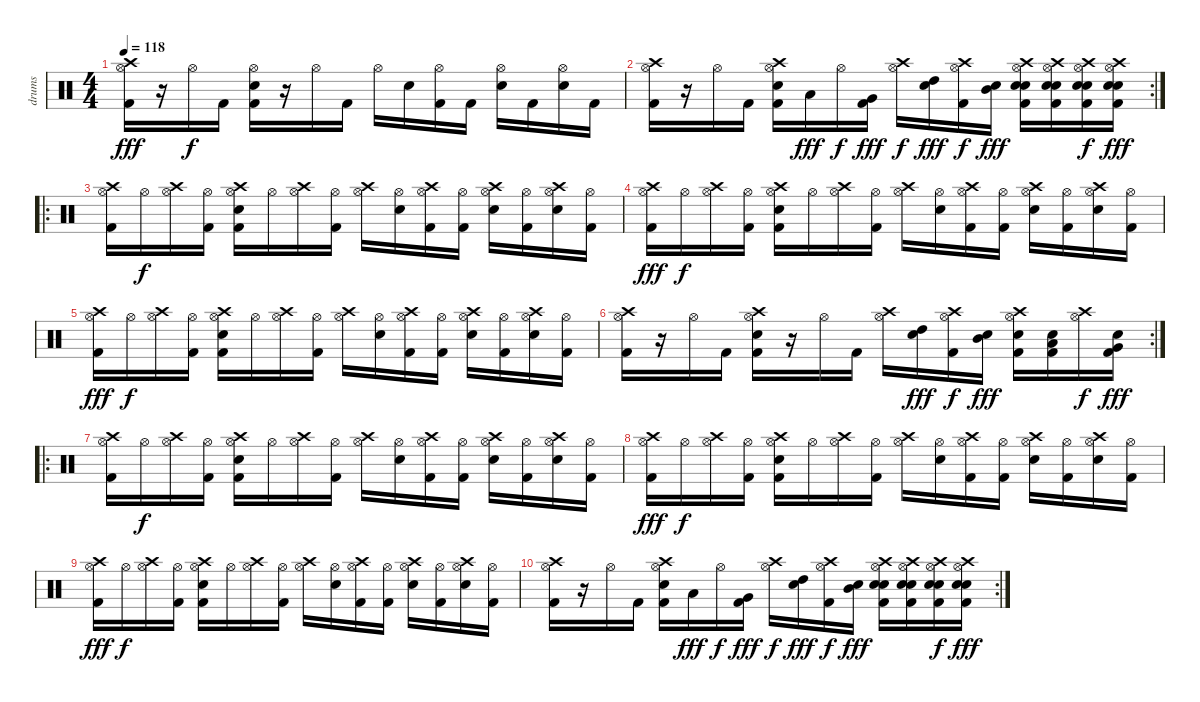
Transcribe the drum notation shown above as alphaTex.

\track ("drums" "drums") {instrument percussion}
\staff {score}
\articulation defaults
\ts (4 4)
\tempo 118
\clef neutral
\ks c
("Hi-Hat (open)" "Crash high (hit)" "Kick (hit) 2").16{dy fff} r.16 "Hi-Hat (open)".16{dy f} "Kick (hit) 2".16 ("Hi-Hat (open)" "Electric Snare (hit)" "Kick (hit) 2").16 r.16 "Hi-Hat (open)".16 "Kick (hit) 2".16 "Hi-Hat (open)".16 "Electric Snare (hit)".16 ("Hi-Hat (open)" "Kick (hit) 2").16 "Kick (hit) 2".16 ("Hi-Hat (open)" "Electric Snare (hit)").16 "Kick (hit) 2".16 ("Hi-Hat (open)" "Electric Snare (hit)").16 "Kick (hit) 2".16 |
\rc 2
("Hi-Hat (open)" "Crash high (hit)" "Kick (hit) 2").16 r.16 "Hi-Hat (open)".16 "Kick (hit) 2".16 ("Hi-Hat (open)" "Crash high (hit)" "Electric Snare (hit)" "Kick (hit) 2").16 "Low Tom (hit)".16{dy fff} "Hi-Hat (open)".16{dy f} ("Very Low Tom (hit)" "Kick (hit) 2").16{dy fff} ("Hi-Hat (open)" "Crash high (hit)").16{dy f} ("High Tom (hit)" "Electric Snare (hit)").16{dy fff} ("Hi-Hat (open)" "Crash high (hit)" "Kick (hit) 2").16{dy f} ("Mid Tom (hit)" "Electric Snare (hit)").16{dy fff} ("Hi-Hat (open)" "Crash high (hit)" "Electric Snare (hit)" "Electric Snare (hit)" "Kick (hit) 2").16 ("Hi-Hat (open)" "Crash high (hit)" "Electric Snare (hit)" "Electric Snare (hit)" "Kick (hit) 2").16 ("Hi-Hat (open)" "Crash high (hit)" "Electric Snare (hit)" "Electric Snare (hit)" "Kick (hit) 2").16{dy f} ("Hi-Hat (open)" "Crash high (hit)" "Electric Snare (hit)" "Electric Snare (hit)" "Kick (hit) 2").16{dy fff} |
\ro
("Hi-Hat (open)" "Crash high (hit)" "Kick (hit) 2").16 "Hi-Hat (open)".16{dy f} ("Hi-Hat (open)" "Crash high (hit)").16 ("Hi-Hat (open)" "Kick (hit) 2").16 ("Hi-Hat (open)" "Crash high (hit)" "Electric Snare (hit)" "Kick (hit) 2").16 "Hi-Hat (open)".16 ("Hi-Hat (open)" "Crash high (hit)").16 ("Hi-Hat (open)" "Kick (hit) 2").16 ("Hi-Hat (open)" "Crash high (hit)").16 ("Hi-Hat (open)" "Electric Snare (hit)").16 ("Hi-Hat (open)" "Crash high (hit)" "Kick (hit) 2").16 ("Hi-Hat (open)" "Kick (hit) 2").16 ("Hi-Hat (open)" "Crash high (hit)" "Electric Snare (hit)").16 ("Hi-Hat (open)" "Kick (hit) 2").16 ("Hi-Hat (open)" "Crash high (hit)" "Electric Snare (hit)").16 ("Hi-Hat (open)" "Kick (hit) 2").16 |
("Hi-Hat (open)" "Crash high (hit)" "Kick (hit) 2").16{dy fff} "Hi-Hat (open)".16{dy f} ("Hi-Hat (open)" "Crash high (hit)").16 ("Hi-Hat (open)" "Kick (hit) 2").16 ("Hi-Hat (open)" "Crash high (hit)" "Electric Snare (hit)" "Kick (hit) 2").16 "Hi-Hat (open)".16 ("Hi-Hat (open)" "Crash high (hit)").16 ("Hi-Hat (open)" "Kick (hit) 2").16 ("Hi-Hat (open)" "Crash high (hit)").16 ("Hi-Hat (open)" "Electric Snare (hit)").16 ("Hi-Hat (open)" "Crash high (hit)" "Kick (hit) 2").16 ("Hi-Hat (open)" "Kick (hit) 2").16 ("Hi-Hat (open)" "Crash high (hit)" "Electric Snare (hit)").16 ("Hi-Hat (open)" "Kick (hit) 2").16 ("Hi-Hat (open)" "Crash high (hit)" "Electric Snare (hit)").16 ("Hi-Hat (open)" "Kick (hit) 2").16 |
("Hi-Hat (open)" "Crash high (hit)" "Kick (hit) 2").16{dy fff} "Hi-Hat (open)".16{dy f} ("Hi-Hat (open)" "Crash high (hit)").16 ("Hi-Hat (open)" "Kick (hit) 2").16 ("Hi-Hat (open)" "Crash high (hit)" "Electric Snare (hit)" "Kick (hit) 2").16 "Hi-Hat (open)".16 ("Hi-Hat (open)" "Crash high (hit)").16 ("Hi-Hat (open)" "Kick (hit) 2").16 ("Hi-Hat (open)" "Crash high (hit)").16 ("Hi-Hat (open)" "Electric Snare (hit)").16 ("Hi-Hat (open)" "Crash high (hit)" "Kick (hit) 2").16 ("Hi-Hat (open)" "Kick (hit) 2").16 ("Hi-Hat (open)" "Crash high (hit)" "Electric Snare (hit)").16 ("Hi-Hat (open)" "Kick (hit) 2").16 ("Hi-Hat (open)" "Crash high (hit)" "Electric Snare (hit)").16 ("Hi-Hat (open)" "Kick (hit) 2").16 |
\rc 2
("Hi-Hat (open)" "Crash high (hit)" "Kick (hit) 2").16 r.16 "Hi-Hat (open)".16 "Kick (hit) 2".16 ("Hi-Hat (open)" "Crash high (hit)" "Electric Snare (hit)" "Kick (hit) 2").16 r.16 "Hi-Hat (open)".16 "Kick (hit) 2".16 ("Hi-Hat (open)" "Crash high (hit)").16 ("High Tom (hit)" "Electric Snare (hit)").16{dy fff} ("Hi-Hat (open)" "Crash high (hit)" "Kick (hit) 2").16{dy f} ("Mid Tom (hit)" "Electric Snare (hit)").16{dy fff} ("Hi-Hat (open)" "Crash high (hit)" "Electric Snare (hit)" "Kick (hit) 2").16 ("Low Tom (hit)" "Electric Snare (hit)" "Kick (hit) 2").16 ("Hi-Hat (open)" "Crash high (hit)").16{dy f} ("Very Low Tom (hit)" "Electric Snare (hit)" "Kick (hit) 2").16{dy fff} |
\ro
("Hi-Hat (open)" "Crash high (hit)" "Kick (hit) 2").16 "Hi-Hat (open)".16{dy f} ("Hi-Hat (open)" "Crash high (hit)").16 ("Hi-Hat (open)" "Kick (hit) 2").16 ("Hi-Hat (open)" "Crash high (hit)" "Electric Snare (hit)" "Kick (hit) 2").16 "Hi-Hat (open)".16 ("Hi-Hat (open)" "Crash high (hit)").16 ("Hi-Hat (open)" "Kick (hit) 2").16 ("Hi-Hat (open)" "Crash high (hit)").16 ("Hi-Hat (open)" "Electric Snare (hit)").16 ("Hi-Hat (open)" "Crash high (hit)" "Kick (hit) 2").16 ("Hi-Hat (open)" "Kick (hit) 2").16 ("Hi-Hat (open)" "Crash high (hit)" "Electric Snare (hit)").16 ("Hi-Hat (open)" "Kick (hit) 2").16 ("Hi-Hat (open)" "Crash high (hit)" "Electric Snare (hit)").16 ("Hi-Hat (open)" "Kick (hit) 2").16 |
("Hi-Hat (open)" "Crash high (hit)" "Kick (hit) 2").16{dy fff} "Hi-Hat (open)".16{dy f} ("Hi-Hat (open)" "Crash high (hit)").16 ("Hi-Hat (open)" "Kick (hit) 2").16 ("Hi-Hat (open)" "Crash high (hit)" "Electric Snare (hit)" "Kick (hit) 2").16 "Hi-Hat (open)".16 ("Hi-Hat (open)" "Crash high (hit)").16 ("Hi-Hat (open)" "Kick (hit) 2").16 ("Hi-Hat (open)" "Crash high (hit)").16 ("Hi-Hat (open)" "Electric Snare (hit)").16 ("Hi-Hat (open)" "Crash high (hit)" "Kick (hit) 2").16 ("Hi-Hat (open)" "Kick (hit) 2").16 ("Hi-Hat (open)" "Crash high (hit)" "Electric Snare (hit)").16 ("Hi-Hat (open)" "Kick (hit) 2").16 ("Hi-Hat (open)" "Crash high (hit)" "Electric Snare (hit)").16 ("Hi-Hat (open)" "Kick (hit) 2").16 |
("Hi-Hat (open)" "Crash high (hit)" "Kick (hit) 2").16{dy fff} "Hi-Hat (open)".16{dy f} ("Hi-Hat (open)" "Crash high (hit)").16 ("Hi-Hat (open)" "Kick (hit) 2").16 ("Hi-Hat (open)" "Crash high (hit)" "Electric Snare (hit)" "Kick (hit) 2").16 "Hi-Hat (open)".16 ("Hi-Hat (open)" "Crash high (hit)").16 ("Hi-Hat (open)" "Kick (hit) 2").16 ("Hi-Hat (open)" "Crash high (hit)").16 ("Hi-Hat (open)" "Electric Snare (hit)").16 ("Hi-Hat (open)" "Crash high (hit)" "Kick (hit) 2").16 ("Hi-Hat (open)" "Kick (hit) 2").16 ("Hi-Hat (open)" "Crash high (hit)" "Electric Snare (hit)").16 ("Hi-Hat (open)" "Kick (hit) 2").16 ("Hi-Hat (open)" "Crash high (hit)" "Electric Snare (hit)").16 ("Hi-Hat (open)" "Kick (hit) 2").16 |
\rc 2
("Hi-Hat (open)" "Crash high (hit)" "Kick (hit) 2").16 r.16 "Hi-Hat (open)".16 "Kick (hit) 2".16 ("Hi-Hat (open)" "Crash high (hit)" "Electric Snare (hit)" "Kick (hit) 2").16 "Low Tom (hit)".16{dy fff} "Hi-Hat (open)".16{dy f} ("Very Low Tom (hit)" "Kick (hit) 2").16{dy fff} ("Hi-Hat (open)" "Crash high (hit)").16{dy f} ("High Tom (hit)" "Electric Snare (hit)").16{dy fff} ("Hi-Hat (open)" "Crash high (hit)" "Kick (hit) 2").16{dy f} ("Mid Tom (hit)" "Electric Snare (hit)").16{dy fff} ("Hi-Hat (open)" "Crash high (hit)" "Electric Snare (hit)" "Electric Snare (hit)" "Kick (hit) 2").16 ("Hi-Hat (open)" "Crash high (hit)" "Electric Snare (hit)" "Electric Snare (hit)" "Kick (hit) 2").16 ("Hi-Hat (open)" "Crash high (hit)" "Electric Snare (hit)" "Electric Snare (hit)" "Kick (hit) 2").16{dy f} ("Hi-Hat (open)" "Crash high (hit)" "Electric Snare (hit)" "Electric Snare (hit)" "Kick (hit) 2").16{dy fff}
